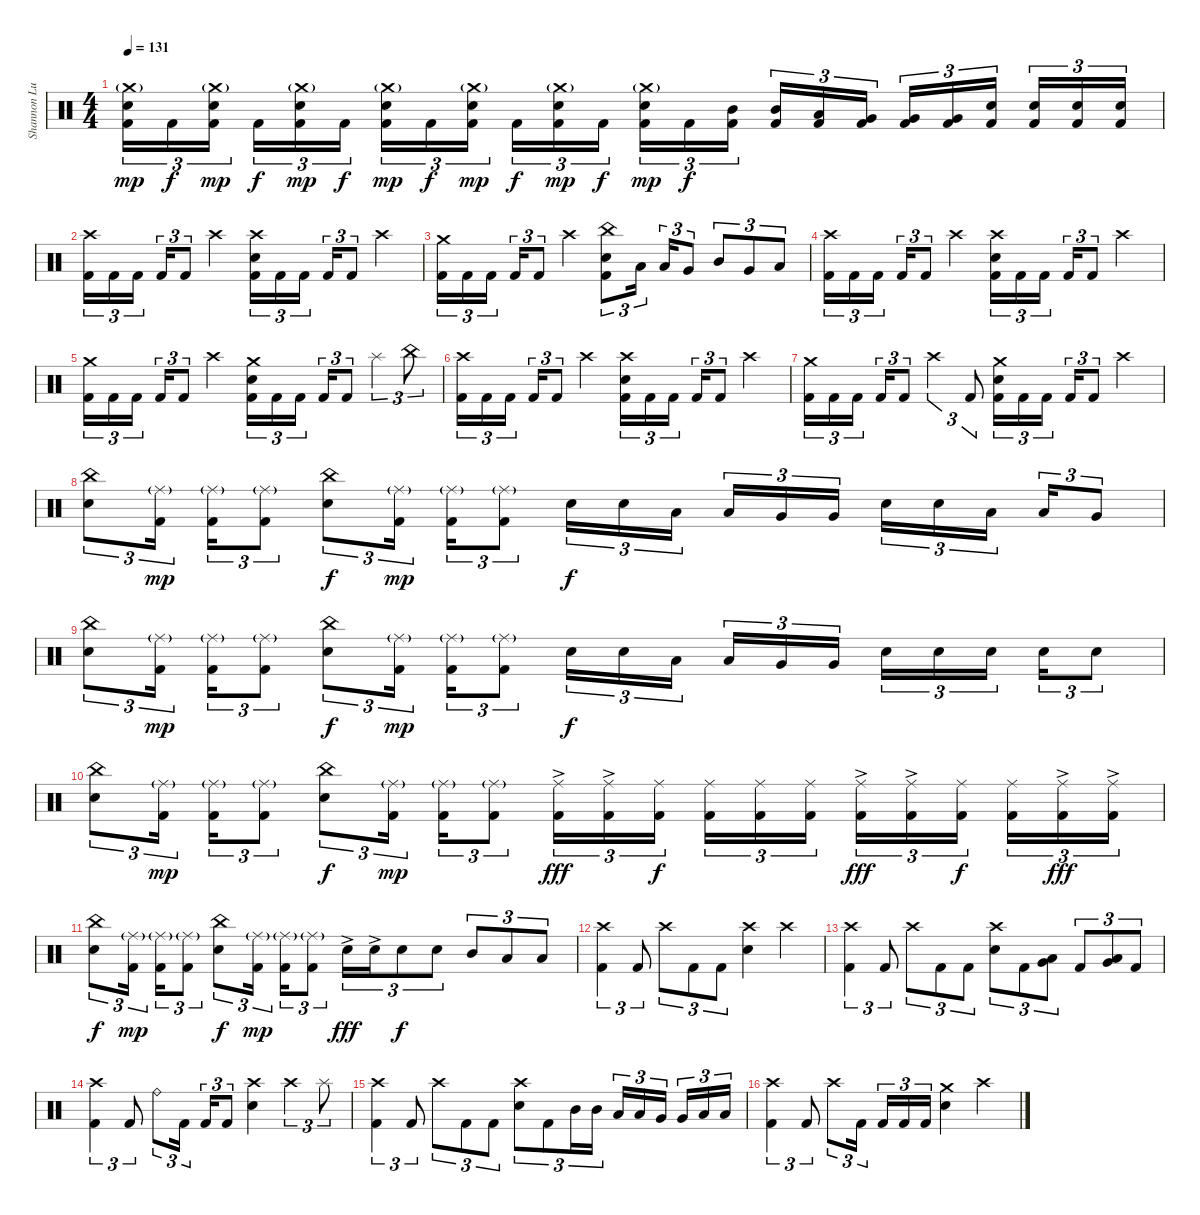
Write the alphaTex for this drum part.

\track ("Shannon Lucas [Drums (Since 2007)]" "Shannon Lu") {instrument percussion}
\staff {score}
\articulation defaults
\ts (4 4)
\tempo 131
\clef neutral
\ks c
("Crash medium (hit)"{g} "Snare (hit) 2" "Kick (hit) 2").16{tu (3 2) dy mp} "Kick (hit) 2".16{tu (3 2) dy f} ("Crash medium (hit)"{g} "Snare (hit) 2" "Kick (hit) 2").16{tu (3 2) dy mp} "Kick (hit) 2".16{tu (3 2) dy f} ("Crash medium (hit)"{g} "Snare (hit) 2" "Kick (hit) 2").16{tu (3 2) dy mp} "Kick (hit) 2".16{tu (3 2) dy f} ("Crash medium (hit)"{g} "Snare (hit) 2" "Kick (hit) 2").16{tu (3 2) dy mp} "Kick (hit) 2".16{tu (3 2) dy f} ("Crash medium (hit)"{g} "Snare (hit) 2" "Kick (hit) 2").16{tu (3 2) dy mp} "Kick (hit) 2".16{tu (3 2) dy f} ("Crash medium (hit)"{g} "Snare (hit) 2" "Kick (hit) 2").16{tu (3 2) dy mp} "Kick (hit) 2".16{tu (3 2) dy f} ("Crash medium (hit)"{g} "Snare (hit) 2" "Kick (hit) 2").16{tu (3 2) dy mp} "Kick (hit) 2".16{tu (3 2) dy f} ("Mid Tom (hit)" "Kick (hit) 2").16{tu (3 2)} ("Mid Tom (hit)" "Kick (hit) 2").16{tu (3 2)} ("Low Tom (hit)" "Kick (hit) 2").16{tu (3 2)} ("Very Low Tom (hit)" "Kick (hit) 2").16{tu (3 2)} ("Very Low Tom (hit)" "Kick (hit) 2").16{tu (3 2)} ("Very Low Tom (hit)" "Kick (hit) 2").16{tu (3 2)} ("Snare (hit) 2" "Kick (hit) 2").16{tu (3 2)} ("Snare (hit) 2" "Kick (hit) 2").16{tu (3 2)} ("Snare (hit) 2" "Kick (hit) 2").16{tu (3 2)} ("Snare (hit) 2" "Kick (hit) 2").16{tu (3 2)} |
("Crash high (hit)" "Kick (hit) 2").16{tu (3 2)} "Kick (hit) 2".16{tu (3 2)} "Kick (hit) 2".16{tu (3 2)} "Kick (hit) 2".16{tu (3 2)} "Kick (hit) 2".8{tu (3 2)} "Crash high (hit)".4 ("Snare (hit) 2" "Crash high (hit)" "Kick (hit) 2").16{tu (3 2)} "Kick (hit) 2".16{tu (3 2)} "Kick (hit) 2".16{tu (3 2)} "Kick (hit) 2".16{tu (3 2)} "Kick (hit) 2".8{tu (3 2)} "Crash high (hit)".4 |
("Crash medium (hit)" "Kick (hit) 2").16{tu (3 2)} "Kick (hit) 2".16{tu (3 2)} "Kick (hit) 2".16{tu (3 2)} "Kick (hit) 2".16{tu (3 2)} "Kick (hit) 2".8{tu (3 2)} "Crash high (hit)".4 ("Snare (hit) 2" "China (hit)" "Kick (hit) 2").8{tu (3 2)} "Low Tom (hit)".16{tu (3 2)} "Low Tom (hit)".16{tu (3 2)} "Very Low Tom (hit)".8{tu (3 2)} "Mid Tom (hit)".8{tu (3 2)} "Very Low Tom (hit)".8{tu (3 2)} "Low Floor Tom (hit)".8{tu (3 2)} |
("Crash high (hit)" "Kick (hit) 2").16{tu (3 2)} "Kick (hit) 2".16{tu (3 2)} "Kick (hit) 2".16{tu (3 2)} "Kick (hit) 2".16{tu (3 2)} "Kick (hit) 2".8{tu (3 2)} "Crash high (hit)".4 ("Snare (hit) 2" "Crash high (hit)" "Kick (hit) 2").16{tu (3 2)} "Kick (hit) 2".16{tu (3 2)} "Kick (hit) 2".16{tu (3 2)} "Kick (hit) 2".16{tu (3 2)} "Kick (hit) 2".8{tu (3 2)} "Crash high (hit)".4 |
("Crash medium (hit)" "Kick (hit) 2").16{tu (3 2)} "Kick (hit) 2".16{tu (3 2)} "Kick (hit) 2".16{tu (3 2)} "Kick (hit) 2".16{tu (3 2)} "Kick (hit) 2".8{tu (3 2)} "Crash high (hit)".4 ("Snare (hit) 2" "Crash medium (hit)" "Kick (hit) 2").16{tu (3 2)} "Kick (hit) 2".16{tu (3 2)} "Kick (hit) 2".16{tu (3 2)} "Kick (hit) 2".16{tu (3 2)} "Kick (hit) 2".8{tu (3 2)} "Splash (hit)".4{tu (3 2)} "China (hit)".8{tu (3 2)} |
("Crash high (hit)" "Kick (hit) 2").16{tu (3 2)} "Kick (hit) 2".16{tu (3 2)} "Kick (hit) 2".16{tu (3 2)} "Kick (hit) 2".16{tu (3 2)} "Kick (hit) 2".8{tu (3 2)} "Crash high (hit)".4 ("Snare (hit) 2" "Crash high (hit)" "Kick (hit) 2").16{tu (3 2)} "Kick (hit) 2".16{tu (3 2)} "Kick (hit) 2".16{tu (3 2)} "Kick (hit) 2".16{tu (3 2)} "Kick (hit) 2".8{tu (3 2)} "Crash high (hit)".4 |
("Crash medium (hit)" "Kick (hit) 2").16{tu (3 2)} "Kick (hit) 2".16{tu (3 2)} "Kick (hit) 2".16{tu (3 2)} "Kick (hit) 2".16{tu (3 2)} "Kick (hit) 2".8{tu (3 2)} "Crash high (hit)".4{tu (3 2)} "Kick (hit) 2".8{tu (3 2)} ("Snare (hit) 2" "Crash medium (hit)" "Kick (hit) 2").16{tu (3 2)} "Kick (hit) 2".16{tu (3 2)} "Kick (hit) 2".16{tu (3 2)} "Kick (hit) 2".16{tu (3 2)} "Kick (hit) 2".8{tu (3 2)} "Crash high (hit)".4 |
("China (hit)" "Snare (hit) 2").8{tu (3 2)} ("Ride (middle)"{g} "Kick (hit) 2").16{tu (3 2) dy mp} ("Ride (middle)"{g} "Kick (hit) 2").16{tu (3 2)} ("Ride (middle)"{g} "Kick (hit) 2").8{tu (3 2)} ("China (hit)" "Snare (hit) 2").8{tu (3 2) dy f} ("Ride (middle)"{g} "Kick (hit) 2").16{tu (3 2) dy mp} ("Ride (middle)"{g} "Kick (hit) 2").16{tu (3 2)} ("Ride (middle)"{g} "Kick (hit) 2").8{tu (3 2)} "Snare (hit) 2".16{tu (3 2) dy f} "Snare (hit) 2".16{tu (3 2)} "Low Tom (hit)".16{tu (3 2)} "Low Tom (hit)".16{tu (3 2)} "Very Low Tom (hit)".16{tu (3 2)} "Very Low Tom (hit)".16{tu (3 2)} "Snare (hit) 2".16{tu (3 2)} "Snare (hit) 2".16{tu (3 2)} "Low Tom (hit)".16{tu (3 2)} "Low Tom (hit)".16{tu (3 2)} "Very Low Tom (hit)".8{tu (3 2)} |
("China (hit)" "Snare (hit) 2").8{tu (3 2)} ("Ride (middle)"{g} "Kick (hit) 2").16{tu (3 2) dy mp} ("Ride (middle)"{g} "Kick (hit) 2").16{tu (3 2)} ("Ride (middle)"{g} "Kick (hit) 2").8{tu (3 2)} ("China (hit)" "Snare (hit) 2").8{tu (3 2) dy f} ("Ride (middle)"{g} "Kick (hit) 2").16{tu (3 2) dy mp} ("Ride (middle)"{g} "Kick (hit) 2").16{tu (3 2)} ("Ride (middle)"{g} "Kick (hit) 2").8{tu (3 2)} "Snare (hit) 2".16{tu (3 2) dy f} "Snare (hit) 2".16{tu (3 2)} "Low Tom (hit)".16{tu (3 2)} "Low Tom (hit)".16{tu (3 2)} "Very Low Tom (hit)".16{tu (3 2)} "Very Low Tom (hit)".16{tu (3 2)} "Snare (hit) 2".16{tu (3 2)} "Snare (hit) 2".16{tu (3 2)} "Snare (hit) 2".16{tu (3 2)} "Snare (hit) 2".16{tu (3 2)} "Snare (hit) 2".8{tu (3 2)} |
("China (hit)" "Snare (hit) 2").8{tu (3 2)} ("Ride (middle)"{g} "Kick (hit) 2").16{tu (3 2) dy mp} ("Ride (middle)"{g} "Kick (hit) 2").16{tu (3 2)} ("Ride (middle)"{g} "Kick (hit) 2").8{tu (3 2)} ("China (hit)" "Snare (hit) 2").8{tu (3 2) dy f} ("Ride (middle)"{g} "Kick (hit) 2").16{tu (3 2) dy mp} ("Ride (middle)"{g} "Kick (hit) 2").16{tu (3 2)} ("Ride (middle)"{g} "Kick (hit) 2").8{tu (3 2)} ("Ride (middle)"{ac} "Kick (hit) 2").16{tu (3 2) dy fff} ("Ride (middle)"{ac} "Kick (hit) 2").16{tu (3 2)} ("Ride (middle)" "Kick (hit) 2").16{tu (3 2) dy f} ("Ride (middle)" "Kick (hit) 2").16{tu (3 2)} ("Ride (middle)" "Kick (hit) 2").16{tu (3 2)} ("Ride (middle)" "Kick (hit) 2").16{tu (3 2)} ("Ride (middle)"{ac} "Kick (hit) 2").16{tu (3 2) dy fff} ("Ride (middle)"{ac} "Kick (hit) 2").16{tu (3 2)} ("Ride (middle)" "Kick (hit) 2").16{tu (3 2) dy f} ("Ride (middle)" "Kick (hit) 2").16{tu (3 2)} ("Ride (middle)"{ac} "Kick (hit) 2").16{tu (3 2) dy fff} ("Ride (middle)"{ac} "Kick (hit) 2").16{tu (3 2)} |
("China (hit)" "Snare (hit) 2").8{tu (3 2) dy f} ("Ride (middle)"{g} "Kick (hit) 2").16{tu (3 2) dy mp} ("Ride (middle)"{g} "Kick (hit) 2").16{tu (3 2)} ("Ride (middle)"{g} "Kick (hit) 2").8{tu (3 2)} ("China (hit)" "Snare (hit) 2").8{tu (3 2) dy f} ("Ride (middle)"{g} "Kick (hit) 2").16{tu (3 2) dy mp} ("Ride (middle)"{g} "Kick (hit) 2").16{tu (3 2)} ("Ride (middle)"{g} "Kick (hit) 2").8{tu (3 2)} "Snare (hit) 2"{ac}.16{tu (3 2) dy fff} "Snare (hit) 2"{ac}.16{tu (3 2)} "Snare (hit) 2".8{tu (3 2) dy f} "Snare (hit) 2".8{tu (3 2)} "Mid Tom (hit)".8{tu (3 2)} "Low Tom (hit)".8{tu (3 2)} "Low Floor Tom (hit)".8{tu (3 2)} |
("Kick (hit) 2" "Crash high (hit)").4{tu (3 2)} "Kick (hit) 2".8{tu (3 2)} "Crash high (hit)".8{tu (3 2)} "Kick (hit) 2".8{tu (3 2)} "Kick (hit) 2".8{tu (3 2)} ("Snare (hit) 2" "Crash high (hit)").4 "Crash high (hit)".4 |
("Kick (hit) 2" "Crash high (hit)").4{tu (3 2)} "Kick (hit) 2".8{tu (3 2)} "Crash high (hit)".8{tu (3 2)} "Kick (hit) 2".8{tu (3 2)} "Kick (hit) 2".8{tu (3 2)} ("Snare (hit) 2" "Crash high (hit)").8{tu (3 2)} "Kick (hit) 2".8{tu (3 2)} ("Low Tom (hit)" "Very Low Tom (hit)").8{tu (3 2)} "Kick (hit) 2".8{tu (3 2)} ("Low Floor Tom (hit)" "Very Low Tom (hit)").8{tu (3 2)} "Kick (hit) 2".8{tu (3 2)} |
("Kick (hit) 2" "Crash high (hit)").4{tu (3 2)} "Kick (hit) 2".8{tu (3 2)} "Ride (bell)".8{tu (3 2)} "Kick (hit) 2".16{tu (3 2)} "Kick (hit) 2".16{tu (3 2)} "Kick (hit) 2".8{tu (3 2)} ("Crash high (hit)" "Snare (hit) 2").4 "Crash high (hit)".4{tu (3 2)} "Splash (hit)".8{tu (3 2)} |
("Kick (hit) 2" "Crash high (hit)").4{tu (3 2)} "Kick (hit) 2".8{tu (3 2)} "Crash high (hit)".8{tu (3 2)} "Kick (hit) 2".8{tu (3 2)} "Kick (hit) 2".8{tu (3 2)} ("Snare (hit) 2" "Crash high (hit)").8{tu (3 2)} "Kick (hit) 2".8{tu (3 2)} "Mid Tom (hit)".16{tu (3 2)} "Mid Tom (hit)".16{tu (3 2)} "Low Tom (hit)".16{tu (3 2)} "Low Tom (hit)".16{tu (3 2)} "Very Low Tom (hit)".16{tu (3 2)} "Very Low Tom (hit)".16{tu (3 2)} "Low Floor Tom (hit)".16{tu (3 2)} "Low Floor Tom (hit)".16{tu (3 2)} |
("Kick (hit) 2" "Crash high (hit)").4{tu (3 2)} "Kick (hit) 2".8{tu (3 2)} "Crash high (hit)".8{tu (3 2)} "Kick (hit) 2".16{tu (3 2)} "Kick (hit) 2".16{tu (3 2)} "Kick (hit) 2".16{tu (3 2)} "Kick (hit) 2".16{tu (3 2)} ("Crash medium (hit)" "Snare (hit) 2").4 "Crash high (hit)".4
